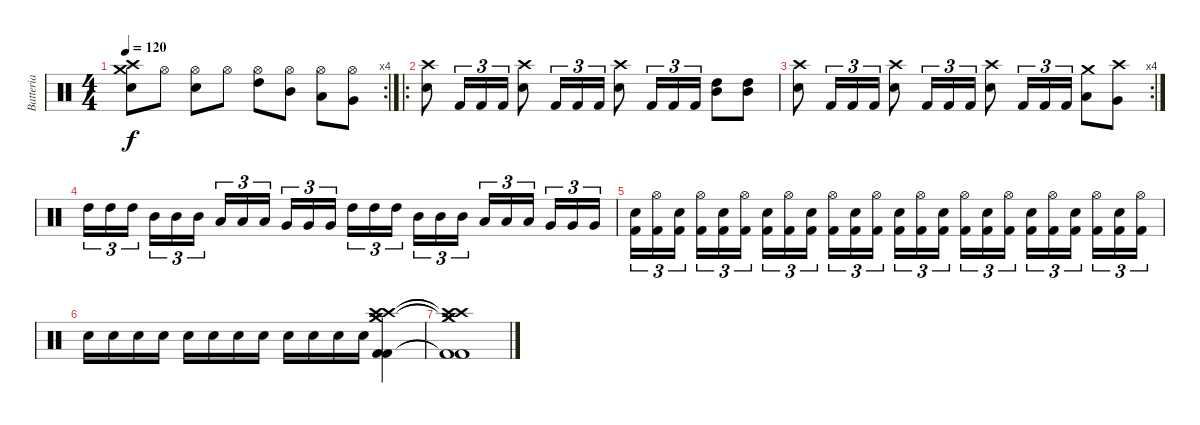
\track ("Batteria" "Batteria") {instrument percussion}
\staff {score}
\articulation defaults
\rc 4
\ts (4 4)
\tempo 120
\clef neutral
\ks c
("Crash medium (hit)" "Crash high (hit)" "Electric Snare (hit)").8{dy f} "Hi-Hat (open)".8 ("Hi-Hat (open)" "Electric Snare (hit)").8 "Hi-Hat (open)".8 ("Hi-Hat (open)" "High Tom (hit)").8 ("Hi-Hat (open)" "Mid Tom (hit)").8 ("Hi-Hat (open)" "Low Tom (hit)").8 ("Hi-Hat (open)" "Very Low Tom (hit)").8 |
\ro
("Crash high (hit)" "Electric Snare (hit)").8 "Kick (hit) 2".16{tu (3 2)} "Kick (hit) 2".16{tu (3 2)} "Kick (hit) 2".16{tu (3 2)} ("Crash high (hit)" "Electric Snare (hit)").8 "Kick (hit) 2".16{tu (3 2)} "Kick (hit) 2".16{tu (3 2)} "Kick (hit) 2".16{tu (3 2)} ("Crash high (hit)" "Electric Snare (hit)").8 "Kick (hit) 2".16{tu (3 2)} "Kick (hit) 2".16{tu (3 2)} "Kick (hit) 2".16{tu (3 2)} ("High Tom (hit)" "Mid Tom (hit)").8 ("High Tom (hit)" "Mid Tom (hit)").8 |
\rc 4
("Crash high (hit)" "Electric Snare (hit)").8 "Kick (hit) 2".16{tu (3 2)} "Kick (hit) 2".16{tu (3 2)} "Kick (hit) 2".16{tu (3 2)} ("Crash high (hit)" "Electric Snare (hit)").8 "Kick (hit) 2".16{tu (3 2)} "Kick (hit) 2".16{tu (3 2)} "Kick (hit) 2".16{tu (3 2)} ("Crash high (hit)" "Electric Snare (hit)").8 "Kick (hit) 2".16{tu (3 2)} "Kick (hit) 2".16{tu (3 2)} "Kick (hit) 2".16{tu (3 2)} ("Crash medium (hit)" "Low Tom (hit)").8 ("Crash high (hit)" "Very Low Tom (hit)").8 |
"High Tom (hit)".16{tu (3 2)} "High Tom (hit)".16{tu (3 2)} "High Tom (hit)".16{tu (3 2)} "Mid Tom (hit)".16{tu (3 2)} "Mid Tom (hit)".16{tu (3 2)} "Mid Tom (hit)".16{tu (3 2)} "Low Tom (hit)".16{tu (3 2)} "Low Tom (hit)".16{tu (3 2)} "Low Tom (hit)".16{tu (3 2)} "Very Low Tom (hit)".16{tu (3 2)} "Very Low Tom (hit)".16{tu (3 2)} "Very Low Tom (hit)".16{tu (3 2)} "High Tom (hit)".16{tu (3 2)} "High Tom (hit)".16{tu (3 2)} "High Tom (hit)".16{tu (3 2)} "Mid Tom (hit)".16{tu (3 2)} "Mid Tom (hit)".16{tu (3 2)} "Mid Tom (hit)".16{tu (3 2)} "Low Tom (hit)".16{tu (3 2)} "Low Tom (hit)".16{tu (3 2)} "Low Tom (hit)".16{tu (3 2)} "Very Low Tom (hit)".16{tu (3 2)} "Very Low Tom (hit)".16{tu (3 2)} "Very Low Tom (hit)".16{tu (3 2)} |
("Electric Snare (hit)" "Kick (hit) 2").16{tu (3 2)} ("Hi-Hat (open)" "Kick (hit) 2").16{tu (3 2)} ("Electric Snare (hit)" "Kick (hit) 2").16{tu (3 2)} ("Hi-Hat (open)" "Kick (hit) 2").16{tu (3 2)} ("Electric Snare (hit)" "Kick (hit) 2").16{tu (3 2)} ("Hi-Hat (open)" "Kick (hit) 2").16{tu (3 2)} ("Electric Snare (hit)" "Kick (hit) 2").16{tu (3 2)} ("Hi-Hat (open)" "Kick (hit) 2").16{tu (3 2)} ("Electric Snare (hit)" "Kick (hit) 2").16{tu (3 2)} ("Hi-Hat (open)" "Kick (hit) 2").16{tu (3 2)} ("Electric Snare (hit)" "Kick (hit) 2").16{tu (3 2)} ("Hi-Hat (open)" "Kick (hit) 2").16{tu (3 2)} ("Electric Snare (hit)" "Kick (hit) 2").16{tu (3 2)} ("Hi-Hat (open)" "Kick (hit) 2").16{tu (3 2)} ("Electric Snare (hit)" "Kick (hit) 2").16{tu (3 2)} ("Hi-Hat (open)" "Kick (hit) 2").16{tu (3 2)} ("Electric Snare (hit)" "Kick (hit) 2").16{tu (3 2)} ("Hi-Hat (open)" "Kick (hit) 2").16{tu (3 2)} ("Electric Snare (hit)" "Kick (hit) 2").16{tu (3 2)} ("Hi-Hat (open)" "Kick (hit) 2").16{tu (3 2)} ("Electric Snare (hit)" "Kick (hit) 2").16{tu (3 2)} ("Hi-Hat (open)" "Kick (hit) 2").16{tu (3 2)} ("Electric Snare (hit)" "Kick (hit) 2").16{tu (3 2)} ("Hi-Hat (open)" "Kick (hit) 2").16{tu (3 2)} |
"Electric Snare (hit)".16 "Electric Snare (hit)".16 "Electric Snare (hit)".16 "Electric Snare (hit)".16 "Electric Snare (hit)".16 "Electric Snare (hit)".16 "Electric Snare (hit)".16 "Electric Snare (hit)".16 "Electric Snare (hit)".16 "Electric Snare (hit)".16 "Electric Snare (hit)".16 "Electric Snare (hit)".16 ("Crash medium (hit)" "Crash high (hit)" "Crash medium (hit)" "Crash high (hit)" "Kick (hit) 2" "Kick (hit) 2").4 |
("Crash medium (hit)"{t} "Crash high (hit)"{t} "Crash medium (hit)"{t} "Crash high (hit)"{t} "Kick (hit) 2"{t} "Kick (hit) 2"{t}).1
